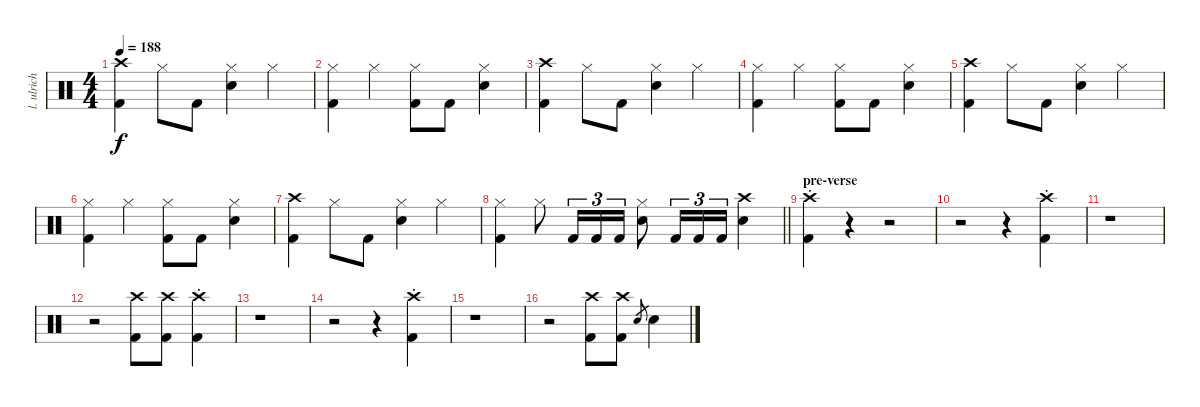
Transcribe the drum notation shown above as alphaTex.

\track ("l. ulrich - drums" "l. ulrich ") {instrument percussion}
\staff {score}
\articulation defaults
\ts (4 4)
\tempo 188
\clef neutral
\ks c
("Crash high (hit)" "Kick (hit) 2").4{dy f} "Hi-Hat (closed)".8 "Kick (hit) 2".8 ("Hi-Hat (closed)" "Snare (hit) 2").4 "Hi-Hat (closed)".4 |
("Hi-Hat (closed)" "Kick (hit) 2").4 "Hi-Hat (closed)".4 ("Hi-Hat (closed)" "Kick (hit) 2").8 "Kick (hit) 2".8 ("Hi-Hat (closed)" "Snare (hit) 2").4 |
("Crash high (hit)" "Kick (hit) 2").4 "Hi-Hat (closed)".8 "Kick (hit) 2".8 ("Hi-Hat (closed)" "Snare (hit) 2").4 "Hi-Hat (closed)".4 |
("Hi-Hat (closed)" "Kick (hit) 2").4 "Hi-Hat (closed)".4 ("Hi-Hat (closed)" "Kick (hit) 2").8 "Kick (hit) 2".8 ("Hi-Hat (closed)" "Snare (hit) 2").4 |
("Crash high (hit)" "Kick (hit) 2").4 "Hi-Hat (closed)".8 "Kick (hit) 2".8 ("Hi-Hat (closed)" "Snare (hit) 2").4 "Hi-Hat (closed)".4 |
("Hi-Hat (closed)" "Kick (hit) 2").4 "Hi-Hat (closed)".4 ("Hi-Hat (closed)" "Kick (hit) 2").8 "Kick (hit) 2".8 ("Hi-Hat (closed)" "Snare (hit) 2").4 |
("Crash high (hit)" "Kick (hit) 2").4 "Hi-Hat (closed)".8 "Kick (hit) 2".8 ("Hi-Hat (closed)" "Snare (hit) 2").4 "Hi-Hat (closed)".4 |
\barLineRight lightlight
("Hi-Hat (closed)" "Kick (hit) 2").4 "Hi-Hat (closed)".8 "Kick (hit) 2".16{tu (3 2)} "Kick (hit) 2".16{tu (3 2)} "Kick (hit) 2".16{tu (3 2)} ("Hi-Hat (closed)" "Snare (hit) 2").8 "Kick (hit) 2".16{tu (3 2)} "Kick (hit) 2".16{tu (3 2)} "Kick (hit) 2".16{tu (3 2)} ("Crash high (hit)" "Snare (hit) 2").4 |
\section ("" "pre-verse")
("Crash high (hit)"{st} "Kick (hit) 2"{st}).4 r.4 r.2 |
r.2 r.4 ("Crash high (hit)"{st} "Kick (hit) 2"{st}).4 |
r.1 |
r.2 ("Crash high (hit)" "Kick (hit) 2").8 ("Crash high (hit)" "Kick (hit) 2").8 ("Crash high (hit)"{st} "Kick (hit) 2"{st}).4 |
r.1 |
r.2 r.4 ("Crash high (hit)"{st} "Kick (hit) 2"{st}).4 |
r.1 |
r.2 ("Crash high (hit)" "Kick (hit) 2").8 ("Crash high (hit)" "Kick (hit) 2").8 "Snare (hit) 2".8{gr} "Snare (hit) 2".4
